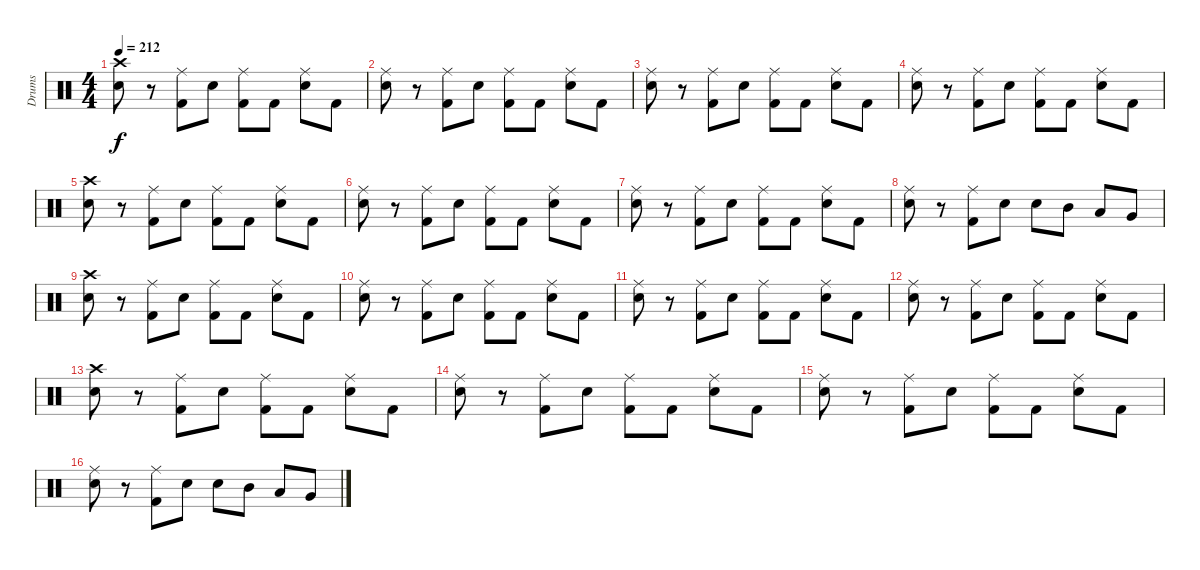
\track ("Drums" "Drums") {instrument percussion}
\staff {score}
\articulation defaults
\ts (4 4)
\tempo 212
\clef neutral
\ks c
("Crash high (hit)" "Snare (hit) 2").8{dy f} r.8 ("Ride (middle)" "Kick (hit) 2").8 "Snare (hit) 2".8 ("Ride (middle)" "Kick (hit) 2").8 "Kick (hit) 2".8 ("Ride (middle)" "Snare (hit) 2").8 "Kick (hit) 2".8 |
("Ride (middle)" "Snare (hit) 2").8 r.8 ("Ride (middle)" "Kick (hit) 2").8 "Snare (hit) 2".8 ("Ride (middle)" "Kick (hit) 2").8 "Kick (hit) 2".8 ("Ride (middle)" "Snare (hit) 2").8 "Kick (hit) 2".8 |
("Ride (middle)" "Snare (hit) 2").8 r.8 ("Ride (middle)" "Kick (hit) 2").8 "Snare (hit) 2".8 ("Ride (middle)" "Kick (hit) 2").8 "Kick (hit) 2".8 ("Ride (middle)" "Snare (hit) 2").8 "Kick (hit) 2".8 |
("Ride (middle)" "Snare (hit) 2").8 r.8 ("Ride (middle)" "Kick (hit) 2").8 "Snare (hit) 2".8 ("Ride (middle)" "Kick (hit) 2").8 "Kick (hit) 2".8 ("Ride (middle)" "Snare (hit) 2").8 "Kick (hit) 2".8 |
("Crash high (hit)" "Snare (hit) 2").8 r.8 ("Ride (middle)" "Kick (hit) 2").8 "Snare (hit) 2".8 ("Ride (middle)" "Kick (hit) 2").8 "Kick (hit) 2".8 ("Ride (middle)" "Snare (hit) 2").8 "Kick (hit) 2".8 |
("Ride (middle)" "Snare (hit) 2").8 r.8 ("Ride (middle)" "Kick (hit) 2").8 "Snare (hit) 2".8 ("Ride (middle)" "Kick (hit) 2").8 "Kick (hit) 2".8 ("Ride (middle)" "Snare (hit) 2").8 "Kick (hit) 2".8 |
("Ride (middle)" "Snare (hit) 2").8 r.8 ("Ride (middle)" "Kick (hit) 2").8 "Snare (hit) 2".8 ("Ride (middle)" "Kick (hit) 2").8 "Kick (hit) 2".8 ("Ride (middle)" "Snare (hit) 2").8 "Kick (hit) 2".8 |
("Ride (middle)" "Snare (hit) 2").8 r.8 ("Ride (middle)" "Kick (hit) 2").8 "Snare (hit) 2".8 "Snare (hit) 2".8 "Mid Tom (hit)".8 "Low Tom (hit)".8 "Very Low Tom (hit)".8 |
("Crash high (hit)" "Snare (hit) 2").8 r.8 ("Ride (middle)" "Kick (hit) 2").8 "Snare (hit) 2".8 ("Ride (middle)" "Kick (hit) 2").8 "Kick (hit) 2".8 ("Ride (middle)" "Snare (hit) 2").8 "Kick (hit) 2".8 |
("Ride (middle)" "Snare (hit) 2").8 r.8 ("Ride (middle)" "Kick (hit) 2").8 "Snare (hit) 2".8 ("Ride (middle)" "Kick (hit) 2").8 "Kick (hit) 2".8 ("Ride (middle)" "Snare (hit) 2").8 "Kick (hit) 2".8 |
("Ride (middle)" "Snare (hit) 2").8 r.8 ("Ride (middle)" "Kick (hit) 2").8 "Snare (hit) 2".8 ("Ride (middle)" "Kick (hit) 2").8 "Kick (hit) 2".8 ("Ride (middle)" "Snare (hit) 2").8 "Kick (hit) 2".8 |
("Ride (middle)" "Snare (hit) 2").8 r.8 ("Ride (middle)" "Kick (hit) 2").8 "Snare (hit) 2".8 ("Ride (middle)" "Kick (hit) 2").8 "Kick (hit) 2".8 ("Ride (middle)" "Snare (hit) 2").8 "Kick (hit) 2".8 |
("Crash high (hit)" "Snare (hit) 2").8 r.8 ("Ride (middle)" "Kick (hit) 2").8 "Snare (hit) 2".8 ("Ride (middle)" "Kick (hit) 2").8 "Kick (hit) 2".8 ("Ride (middle)" "Snare (hit) 2").8 "Kick (hit) 2".8 |
("Ride (middle)" "Snare (hit) 2").8 r.8 ("Ride (middle)" "Kick (hit) 2").8 "Snare (hit) 2".8 ("Ride (middle)" "Kick (hit) 2").8 "Kick (hit) 2".8 ("Ride (middle)" "Snare (hit) 2").8 "Kick (hit) 2".8 |
("Ride (middle)" "Snare (hit) 2").8 r.8 ("Ride (middle)" "Kick (hit) 2").8 "Snare (hit) 2".8 ("Ride (middle)" "Kick (hit) 2").8 "Kick (hit) 2".8 ("Ride (middle)" "Snare (hit) 2").8 "Kick (hit) 2".8 |
("Ride (middle)" "Snare (hit) 2").8 r.8 ("Ride (middle)" "Kick (hit) 2").8 "Snare (hit) 2".8 "Snare (hit) 2".8 "Mid Tom (hit)".8 "Low Tom (hit)".8 "Very Low Tom (hit)".8
